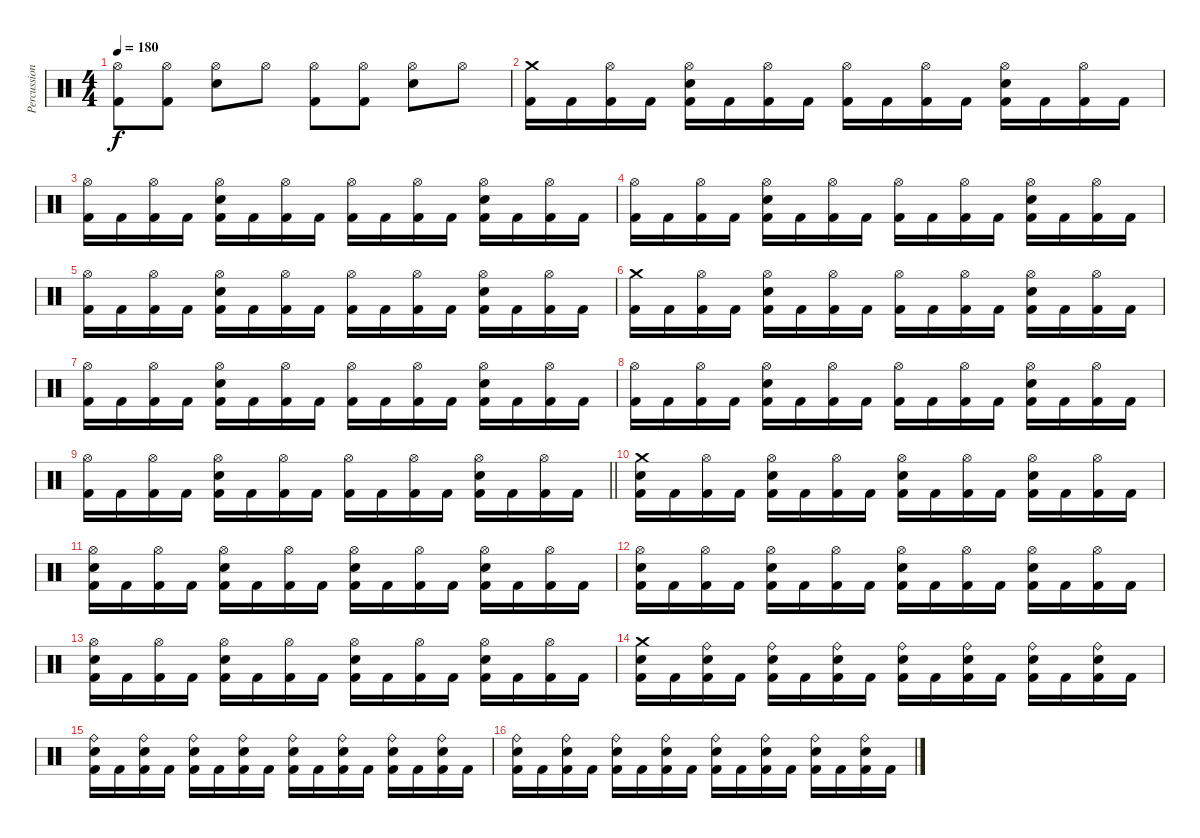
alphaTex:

\track ("Percussion" "Percussion") {instrument percussion}
\staff {score}
\articulation defaults
\ts (4 4)
\tempo 180
\clef neutral
\ks c
("Hi-Hat (open)" "Kick (hit) 2").8{dy f} ("Hi-Hat (open)" "Kick (hit) 2").8 ("Hi-Hat (open)" "Electric Snare (hit)").8 "Hi-Hat (open)".8 ("Hi-Hat (open)" "Kick (hit) 2").8 ("Hi-Hat (open)" "Kick (hit) 2").8 ("Hi-Hat (open)" "Electric Snare (hit)").8 "Hi-Hat (open)".8 |
("Crash medium (hit)" "Kick (hit) 2").16 "Kick (hit) 2".16 ("Hi-Hat (open)" "Kick (hit) 2").16 "Kick (hit) 2".16 ("Hi-Hat (open)" "Electric Snare (hit)" "Kick (hit) 2").16 "Kick (hit) 2".16 ("Hi-Hat (open)" "Kick (hit) 2").16 "Kick (hit) 2".16 ("Hi-Hat (open)" "Kick (hit) 2").16 "Kick (hit) 2".16 ("Hi-Hat (open)" "Kick (hit) 2").16 "Kick (hit) 2".16 ("Hi-Hat (open)" "Electric Snare (hit)" "Kick (hit) 2").16 "Kick (hit) 2".16 ("Hi-Hat (open)" "Kick (hit) 2").16 "Kick (hit) 2".16 |
("Hi-Hat (open)" "Kick (hit) 2").16 "Kick (hit) 2".16 ("Hi-Hat (open)" "Kick (hit) 2").16 "Kick (hit) 2".16 ("Hi-Hat (open)" "Electric Snare (hit)" "Kick (hit) 2").16 "Kick (hit) 2".16 ("Hi-Hat (open)" "Kick (hit) 2").16 "Kick (hit) 2".16 ("Hi-Hat (open)" "Kick (hit) 2").16 "Kick (hit) 2".16 ("Hi-Hat (open)" "Kick (hit) 2").16 "Kick (hit) 2".16 ("Hi-Hat (open)" "Electric Snare (hit)" "Kick (hit) 2").16 "Kick (hit) 2".16 ("Hi-Hat (open)" "Kick (hit) 2").16 "Kick (hit) 2".16 |
("Hi-Hat (open)" "Kick (hit) 2").16 "Kick (hit) 2".16 ("Hi-Hat (open)" "Kick (hit) 2").16 "Kick (hit) 2".16 ("Hi-Hat (open)" "Electric Snare (hit)" "Kick (hit) 2").16 "Kick (hit) 2".16 ("Hi-Hat (open)" "Kick (hit) 2").16 "Kick (hit) 2".16 ("Hi-Hat (open)" "Kick (hit) 2").16 "Kick (hit) 2".16 ("Hi-Hat (open)" "Kick (hit) 2").16 "Kick (hit) 2".16 ("Hi-Hat (open)" "Electric Snare (hit)" "Kick (hit) 2").16 "Kick (hit) 2".16 ("Hi-Hat (open)" "Kick (hit) 2").16 "Kick (hit) 2".16 |
("Hi-Hat (open)" "Kick (hit) 2").16 "Kick (hit) 2".16 ("Hi-Hat (open)" "Kick (hit) 2").16 "Kick (hit) 2".16 ("Hi-Hat (open)" "Electric Snare (hit)" "Kick (hit) 2").16 "Kick (hit) 2".16 ("Hi-Hat (open)" "Kick (hit) 2").16 "Kick (hit) 2".16 ("Hi-Hat (open)" "Kick (hit) 2").16 "Kick (hit) 2".16 ("Hi-Hat (open)" "Kick (hit) 2").16 "Kick (hit) 2".16 ("Hi-Hat (open)" "Electric Snare (hit)" "Kick (hit) 2").16 "Kick (hit) 2".16 ("Hi-Hat (open)" "Kick (hit) 2").16 "Kick (hit) 2".16 |
("Crash medium (hit)" "Kick (hit) 2").16 "Kick (hit) 2".16 ("Hi-Hat (open)" "Kick (hit) 2").16 "Kick (hit) 2".16 ("Hi-Hat (open)" "Electric Snare (hit)" "Kick (hit) 2").16 "Kick (hit) 2".16 ("Hi-Hat (open)" "Kick (hit) 2").16 "Kick (hit) 2".16 ("Hi-Hat (open)" "Kick (hit) 2").16 "Kick (hit) 2".16 ("Hi-Hat (open)" "Kick (hit) 2").16 "Kick (hit) 2".16 ("Hi-Hat (open)" "Electric Snare (hit)" "Kick (hit) 2").16 "Kick (hit) 2".16 ("Hi-Hat (open)" "Kick (hit) 2").16 "Kick (hit) 2".16 |
("Hi-Hat (open)" "Kick (hit) 2").16 "Kick (hit) 2".16 ("Hi-Hat (open)" "Kick (hit) 2").16 "Kick (hit) 2".16 ("Hi-Hat (open)" "Electric Snare (hit)" "Kick (hit) 2").16 "Kick (hit) 2".16 ("Hi-Hat (open)" "Kick (hit) 2").16 "Kick (hit) 2".16 ("Hi-Hat (open)" "Kick (hit) 2").16 "Kick (hit) 2".16 ("Hi-Hat (open)" "Kick (hit) 2").16 "Kick (hit) 2".16 ("Hi-Hat (open)" "Electric Snare (hit)" "Kick (hit) 2").16 "Kick (hit) 2".16 ("Hi-Hat (open)" "Kick (hit) 2").16 "Kick (hit) 2".16 |
("Hi-Hat (open)" "Kick (hit) 2").16 "Kick (hit) 2".16 ("Hi-Hat (open)" "Kick (hit) 2").16 "Kick (hit) 2".16 ("Hi-Hat (open)" "Electric Snare (hit)" "Kick (hit) 2").16 "Kick (hit) 2".16 ("Hi-Hat (open)" "Kick (hit) 2").16 "Kick (hit) 2".16 ("Hi-Hat (open)" "Kick (hit) 2").16 "Kick (hit) 2".16 ("Hi-Hat (open)" "Kick (hit) 2").16 "Kick (hit) 2".16 ("Hi-Hat (open)" "Electric Snare (hit)" "Kick (hit) 2").16 "Kick (hit) 2".16 ("Hi-Hat (open)" "Kick (hit) 2").16 "Kick (hit) 2".16 |
\barLineRight lightlight
("Hi-Hat (open)" "Kick (hit) 2").16 "Kick (hit) 2".16 ("Hi-Hat (open)" "Kick (hit) 2").16 "Kick (hit) 2".16 ("Hi-Hat (open)" "Electric Snare (hit)" "Kick (hit) 2").16 "Kick (hit) 2".16 ("Hi-Hat (open)" "Kick (hit) 2").16 "Kick (hit) 2".16 ("Hi-Hat (open)" "Kick (hit) 2").16 "Kick (hit) 2".16 ("Hi-Hat (open)" "Kick (hit) 2").16 "Kick (hit) 2".16 ("Hi-Hat (open)" "Electric Snare (hit)" "Kick (hit) 2").16 "Kick (hit) 2".16 ("Hi-Hat (open)" "Kick (hit) 2").16 "Kick (hit) 2".16 |
("Crash medium (hit)" "Electric Snare (hit)" "Kick (hit) 2").16 "Kick (hit) 2".16 ("Hi-Hat (open)" "Kick (hit) 2").16 "Kick (hit) 2".16 ("Hi-Hat (open)" "Electric Snare (hit)" "Kick (hit) 2").16 "Kick (hit) 2".16 ("Hi-Hat (open)" "Kick (hit) 2").16 "Kick (hit) 2".16 ("Hi-Hat (open)" "Electric Snare (hit)" "Kick (hit) 2").16 "Kick (hit) 2".16 ("Hi-Hat (open)" "Kick (hit) 2").16 "Kick (hit) 2".16 ("Hi-Hat (open)" "Electric Snare (hit)" "Kick (hit) 2").16 "Kick (hit) 2".16 ("Hi-Hat (open)" "Kick (hit) 2").16 "Kick (hit) 2".16 |
("Hi-Hat (open)" "Electric Snare (hit)" "Kick (hit) 2").16 "Kick (hit) 2".16 ("Hi-Hat (open)" "Kick (hit) 2").16 "Kick (hit) 2".16 ("Hi-Hat (open)" "Electric Snare (hit)" "Kick (hit) 2").16 "Kick (hit) 2".16 ("Hi-Hat (open)" "Kick (hit) 2").16 "Kick (hit) 2".16 ("Hi-Hat (open)" "Electric Snare (hit)" "Kick (hit) 2").16 "Kick (hit) 2".16 ("Hi-Hat (open)" "Kick (hit) 2").16 "Kick (hit) 2".16 ("Hi-Hat (open)" "Electric Snare (hit)" "Kick (hit) 2").16 "Kick (hit) 2".16 ("Hi-Hat (open)" "Kick (hit) 2").16 "Kick (hit) 2".16 |
("Hi-Hat (open)" "Electric Snare (hit)" "Kick (hit) 2").16 "Kick (hit) 2".16 ("Hi-Hat (open)" "Kick (hit) 2").16 "Kick (hit) 2".16 ("Hi-Hat (open)" "Electric Snare (hit)" "Kick (hit) 2").16 "Kick (hit) 2".16 ("Hi-Hat (open)" "Kick (hit) 2").16 "Kick (hit) 2".16 ("Hi-Hat (open)" "Electric Snare (hit)" "Kick (hit) 2").16 "Kick (hit) 2".16 ("Hi-Hat (open)" "Kick (hit) 2").16 "Kick (hit) 2".16 ("Hi-Hat (open)" "Electric Snare (hit)" "Kick (hit) 2").16 "Kick (hit) 2".16 ("Hi-Hat (open)" "Kick (hit) 2").16 "Kick (hit) 2".16 |
("Hi-Hat (open)" "Electric Snare (hit)" "Kick (hit) 2").16 "Kick (hit) 2".16 ("Hi-Hat (open)" "Kick (hit) 2").16 "Kick (hit) 2".16 ("Hi-Hat (open)" "Electric Snare (hit)" "Kick (hit) 2").16 "Kick (hit) 2".16 ("Hi-Hat (open)" "Kick (hit) 2").16 "Kick (hit) 2".16 ("Hi-Hat (open)" "Electric Snare (hit)" "Kick (hit) 2").16 "Kick (hit) 2".16 ("Hi-Hat (open)" "Kick (hit) 2").16 "Kick (hit) 2".16 ("Hi-Hat (open)" "Electric Snare (hit)" "Kick (hit) 2").16 "Kick (hit) 2".16 ("Hi-Hat (open)" "Kick (hit) 2").16 "Kick (hit) 2".16 |
("Crash medium (hit)" "Electric Snare (hit)" "Kick (hit) 2").16 "Kick (hit) 2".16 ("Ride (bell)" "Electric Snare (hit)" "Kick (hit) 2").16 "Kick (hit) 2".16 ("Ride (bell)" "Electric Snare (hit)" "Kick (hit) 2").16 "Kick (hit) 2".16 ("Ride (bell)" "Electric Snare (hit)" "Kick (hit) 2").16 "Kick (hit) 2".16 ("Ride (bell)" "Electric Snare (hit)" "Kick (hit) 2").16 "Kick (hit) 2".16 ("Ride (bell)" "Electric Snare (hit)" "Kick (hit) 2").16 "Kick (hit) 2".16 ("Ride (bell)" "Electric Snare (hit)" "Kick (hit) 2").16 "Kick (hit) 2".16 ("Ride (bell)" "Electric Snare (hit)" "Kick (hit) 2").16 "Kick (hit) 2".16 |
("Ride (bell)" "Electric Snare (hit)" "Kick (hit) 2").16 "Kick (hit) 2".16 ("Ride (bell)" "Electric Snare (hit)" "Kick (hit) 2").16 "Kick (hit) 2".16 ("Ride (bell)" "Electric Snare (hit)" "Kick (hit) 2").16 "Kick (hit) 2".16 ("Ride (bell)" "Electric Snare (hit)" "Kick (hit) 2").16 "Kick (hit) 2".16 ("Ride (bell)" "Electric Snare (hit)" "Kick (hit) 2").16 "Kick (hit) 2".16 ("Ride (bell)" "Electric Snare (hit)" "Kick (hit) 2").16 "Kick (hit) 2".16 ("Ride (bell)" "Electric Snare (hit)" "Kick (hit) 2").16 "Kick (hit) 2".16 ("Ride (bell)" "Electric Snare (hit)" "Kick (hit) 2").16 "Kick (hit) 2".16 |
("Ride (bell)" "Electric Snare (hit)" "Kick (hit) 2").16 "Kick (hit) 2".16 ("Ride (bell)" "Electric Snare (hit)" "Kick (hit) 2").16 "Kick (hit) 2".16 ("Ride (bell)" "Electric Snare (hit)" "Kick (hit) 2").16 "Kick (hit) 2".16 ("Ride (bell)" "Electric Snare (hit)" "Kick (hit) 2").16 "Kick (hit) 2".16 ("Ride (bell)" "Electric Snare (hit)" "Kick (hit) 2").16 "Kick (hit) 2".16 ("Ride (bell)" "Electric Snare (hit)" "Kick (hit) 2").16 "Kick (hit) 2".16 ("Ride (bell)" "Electric Snare (hit)" "Kick (hit) 2").16 "Kick (hit) 2".16 ("Ride (bell)" "Electric Snare (hit)" "Kick (hit) 2").16 "Kick (hit) 2".16
